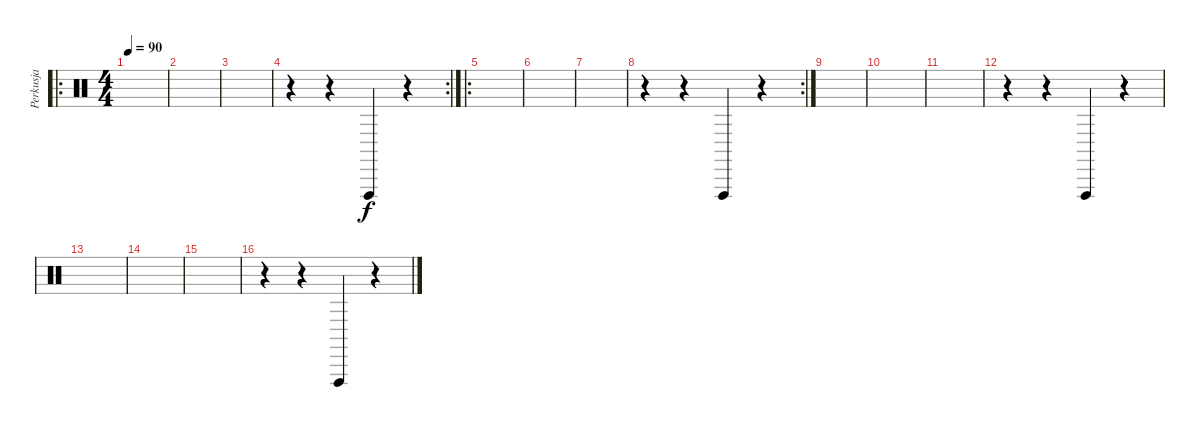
\track ("Perkusja" "Perkusja") {instrument percussion}
\staff {score}
\articulation defaults
\ro
\ts (4 4)
\tempo 90
\clef neutral
\ks c
|
|
|
\rc 2
r.4 r.4 "Vibraslap (hit)".4 r.4 |
\ro
|
|
|
\rc 2
r.4 r.4 "Vibraslap (hit)".4 r.4 |
|
|
|
r.4 r.4 "Vibraslap (hit)".4 r.4 |
|
|
|
r.4 r.4 "Vibraslap (hit)".4 r.4
